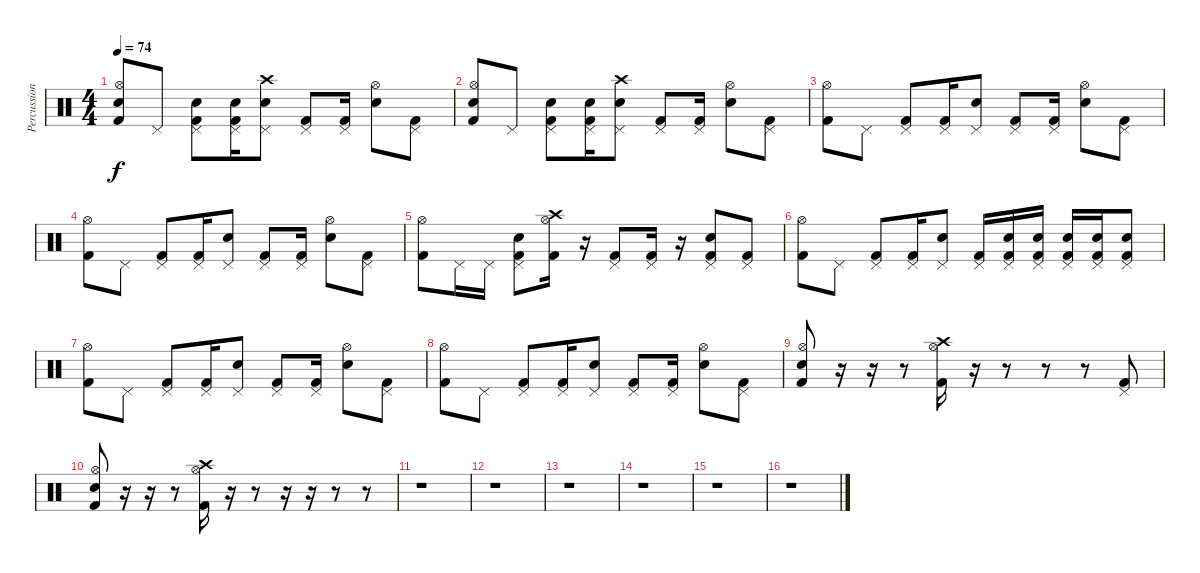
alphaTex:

\track ("Percussion" "Percussion") {instrument percussion}
\staff {score}
\articulation defaults
\ts (4 4)
\tempo 74
\clef neutral
\ks c
("Snare (hit) 2" "Hi-Hat (open)" "Kick (hit) 2").8{dy f} "Pedal Hi-Hat (hit)".8 ("Snare (hit) 2" "Pedal Hi-Hat (hit)" "Kick (hit) 2").8 ("Snare (hit) 2" "Pedal Hi-Hat (hit)" "Kick (hit) 2").16 ("Crash high (hit)" "Snare (hit) 2" "Pedal Hi-Hat (hit)").8 ("Pedal Hi-Hat (hit)" "Kick (hit) 2").8 ("Pedal Hi-Hat (hit)" "Kick (hit) 2").16 ("Snare (hit) 2" "Hi-Hat (open)").8 ("Pedal Hi-Hat (hit)" "Kick (hit) 2").8 |
("Snare (hit) 2" "Hi-Hat (open)" "Kick (hit) 2").8 "Pedal Hi-Hat (hit)".8 ("Snare (hit) 2" "Pedal Hi-Hat (hit)" "Kick (hit) 2").8 ("Snare (hit) 2" "Pedal Hi-Hat (hit)" "Kick (hit) 2").16 ("Crash high (hit)" "Snare (hit) 2" "Pedal Hi-Hat (hit)").8 ("Pedal Hi-Hat (hit)" "Kick (hit) 2").8 ("Pedal Hi-Hat (hit)" "Kick (hit) 2").16 ("Snare (hit) 2" "Hi-Hat (open)").8 ("Pedal Hi-Hat (hit)" "Kick (hit) 2").8 |
("Hi-Hat (open)" "Kick (hit) 2").8 "Pedal Hi-Hat (hit)".8 ("Pedal Hi-Hat (hit)" "Kick (hit) 2").8 ("Pedal Hi-Hat (hit)" "Kick (hit) 2").16 ("Snare (hit) 2" "Pedal Hi-Hat (hit)").8 ("Pedal Hi-Hat (hit)" "Kick (hit) 2").8 ("Pedal Hi-Hat (hit)" "Kick (hit) 2").16 ("Snare (hit) 2" "Hi-Hat (open)").8 ("Pedal Hi-Hat (hit)" "Kick (hit) 2").8 |
("Hi-Hat (open)" "Kick (hit) 2").8 "Pedal Hi-Hat (hit)".8 ("Pedal Hi-Hat (hit)" "Kick (hit) 2").8 ("Pedal Hi-Hat (hit)" "Kick (hit) 2").16 ("Snare (hit) 2" "Pedal Hi-Hat (hit)").8 ("Pedal Hi-Hat (hit)" "Kick (hit) 2").8 ("Pedal Hi-Hat (hit)" "Kick (hit) 2").16 ("Snare (hit) 2" "Hi-Hat (open)").8 ("Pedal Hi-Hat (hit)" "Kick (hit) 2").8 |
("Hi-Hat (open)" "Kick (hit) 2").8 "Pedal Hi-Hat (hit)".16 "Pedal Hi-Hat (hit)".16 ("Snare (hit) 2" "Pedal Hi-Hat (hit)" "Kick (hit) 2").8 ("Crash high (hit)" "Hi-Hat (open)" "Kick (hit) 2").16 r.16 ("Pedal Hi-Hat (hit)" "Kick (hit) 2").8 ("Pedal Hi-Hat (hit)" "Kick (hit) 2").16 r.16 ("Snare (hit) 2" "Pedal Hi-Hat (hit)" "Kick (hit) 2").8 ("Pedal Hi-Hat (hit)" "Kick (hit) 2").8 |
("Hi-Hat (open)" "Kick (hit) 2").8 "Pedal Hi-Hat (hit)".8 ("Pedal Hi-Hat (hit)" "Kick (hit) 2").8 ("Pedal Hi-Hat (hit)" "Kick (hit) 2").16 ("Snare (hit) 2" "Pedal Hi-Hat (hit)").8 ("Pedal Hi-Hat (hit)" "Kick (hit) 2").16 ("Snare (hit) 2" "Pedal Hi-Hat (hit)" "Kick (hit) 2").16 ("Snare (hit) 2" "Pedal Hi-Hat (hit)" "Kick (hit) 2").16 ("Snare (hit) 2" "Pedal Hi-Hat (hit)" "Kick (hit) 2").16 ("Snare (hit) 2" "Pedal Hi-Hat (hit)" "Kick (hit) 2").16 ("Snare (hit) 2" "Pedal Hi-Hat (hit)" "Kick (hit) 2").8 |
("Hi-Hat (open)" "Kick (hit) 2").8 "Pedal Hi-Hat (hit)".8 ("Pedal Hi-Hat (hit)" "Kick (hit) 2").8 ("Pedal Hi-Hat (hit)" "Kick (hit) 2").16 ("Snare (hit) 2" "Pedal Hi-Hat (hit)").8 ("Pedal Hi-Hat (hit)" "Kick (hit) 2").8 ("Pedal Hi-Hat (hit)" "Kick (hit) 2").16 ("Snare (hit) 2" "Hi-Hat (open)").8 ("Pedal Hi-Hat (hit)" "Kick (hit) 2").8 |
("Hi-Hat (open)" "Kick (hit) 2").8 "Pedal Hi-Hat (hit)".8 ("Pedal Hi-Hat (hit)" "Kick (hit) 2").8 ("Pedal Hi-Hat (hit)" "Kick (hit) 2").16 ("Snare (hit) 2" "Pedal Hi-Hat (hit)").8 ("Pedal Hi-Hat (hit)" "Kick (hit) 2").8 ("Pedal Hi-Hat (hit)" "Kick (hit) 2").16 ("Snare (hit) 2" "Hi-Hat (open)").8 ("Pedal Hi-Hat (hit)" "Kick (hit) 2").8 |
("Snare (hit) 2" "Hi-Hat (open)" "Kick (hit) 2").8 r.16 r.16 r.8 ("Crash high (hit)" "Hi-Hat (open)" "Kick (hit) 2").16 r.16 r.8 r.8 r.8 ("Pedal Hi-Hat (hit)" "Kick (hit) 2").8 |
("Snare (hit) 2" "Hi-Hat (open)" "Kick (hit) 2").8 r.16 r.16 r.8 ("Crash high (hit)" "Hi-Hat (open)" "Kick (hit) 2").16 r.16 r.8 r.16 r.16 r.8 r.8 |
r.1 |
r.1 |
r.1 |
r.1 |
r.1 |
r.1
